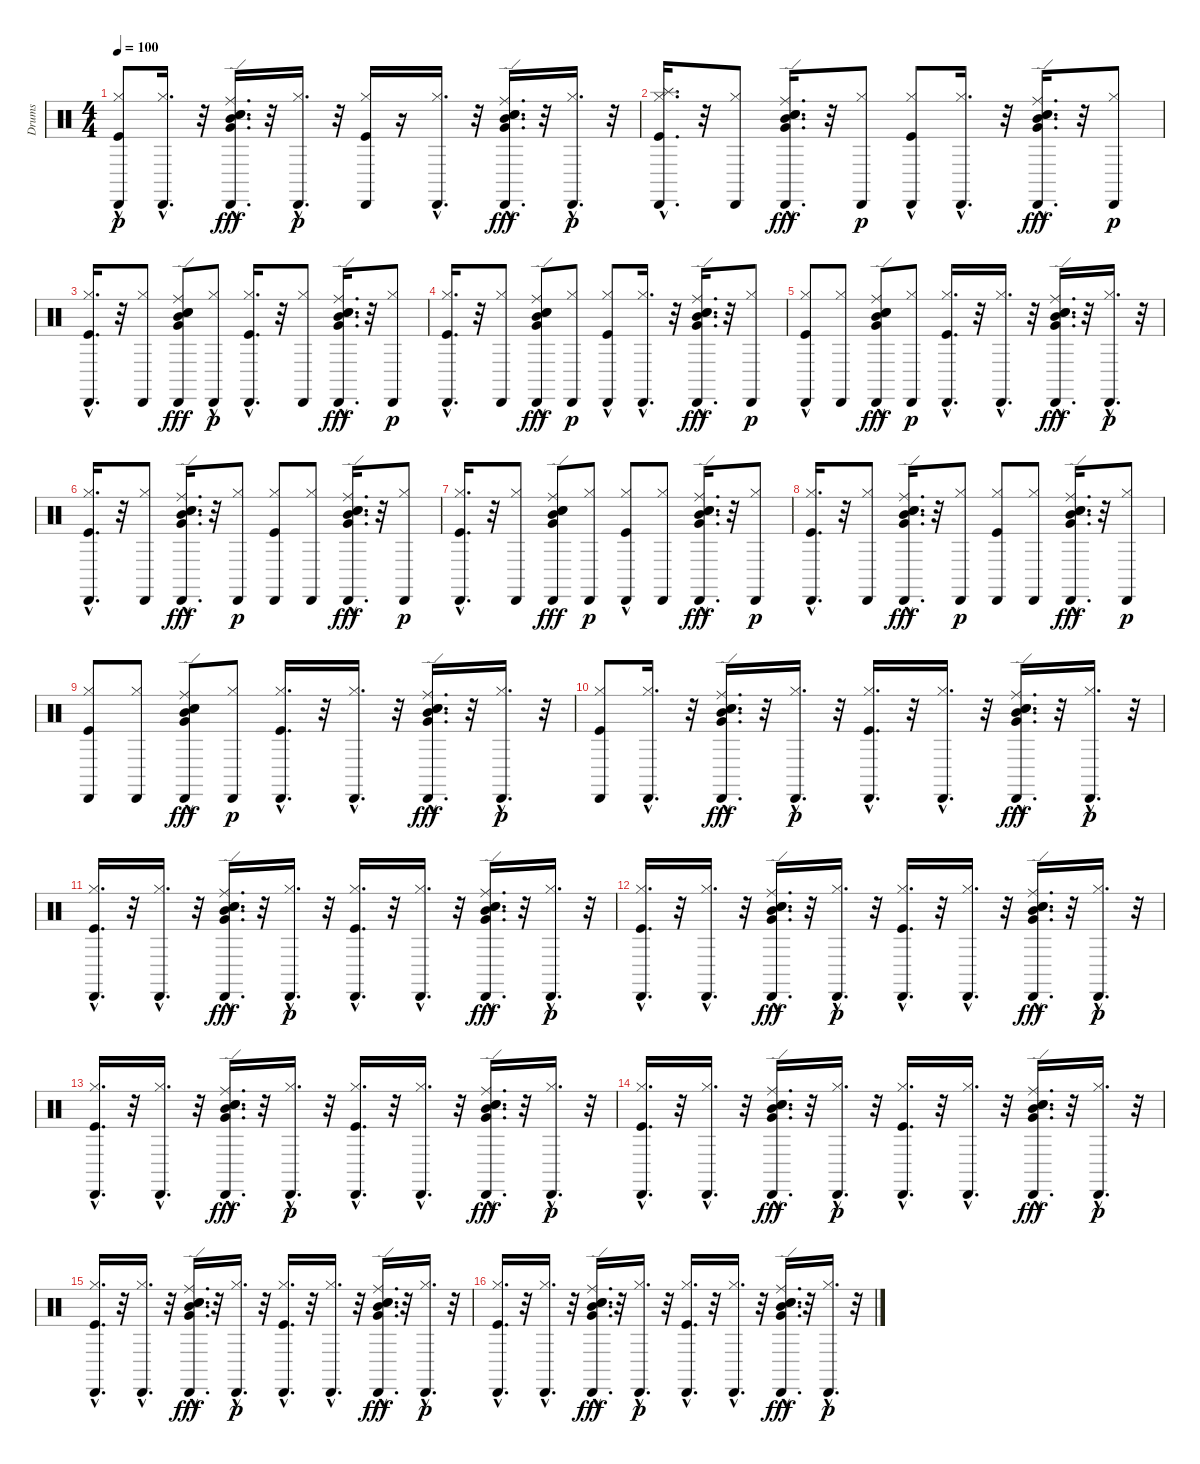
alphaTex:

\track ("Drums" "Drums") {instrument percussion}
\staff {score}
\articulation defaults
\ts (4 4)
\tempo 100
\clef neutral
\ks c
("Hi-Hat (closed)" "Kick (hit)"{hac} "Cabasa (hit)").8{dy p} ("Hi-Hat (closed)"{hac} "Cabasa (hit)"{hac}).16{d} r.32 ("Electric Snare (hit)"{hac} "Snare (hit) 2"{hac} "Ride (edge)"{hac} "Mid Tom (hit)"{hac} "Cabasa (hit)"{hac} "Very Low Tom (hit)"{hac}).16{d dy fff} r.32 ("Hi-Hat (closed)"{hac} "Cabasa (hit)"{hac}).16{d dy p} r.32 ("Hi-Hat (closed)" "Kick (hit)" "Cabasa (hit)").16 r.16 ("Hi-Hat (closed)"{hac} "Cabasa (hit)"{hac}).16{d} r.32 ("Electric Snare (hit)"{hac} "Snare (hit) 2"{hac} "Ride (edge)"{hac} "Mid Tom (hit)"{hac} "Cabasa (hit)"{hac} "Very Low Tom (hit)"{hac}).16{d dy fff} r.32 ("Hi-Hat (closed)"{hac} "Cabasa (hit)"{hac}).16{d dy p} r.32 |
("Splash (hit)" "Hi-Hat (closed)"{hac} "Kick (hit)"{hac} "Cabasa (hit)"{hac}).16{d} r.32 ("Hi-Hat (closed)" "Cabasa (hit)").8 ("Electric Snare (hit)"{hac} "Snare (hit) 2"{hac} "Ride (edge)"{hac} "Mid Tom (hit)"{hac} "Cabasa (hit)"{hac} "Very Low Tom (hit)"{hac}).16{d dy fff} r.32 ("Hi-Hat (closed)" "Cabasa (hit)").8{dy p} ("Hi-Hat (closed)"{hac} "Kick (hit)"{hac} "Cabasa (hit)").8 ("Hi-Hat (closed)"{hac} "Cabasa (hit)"{hac}).16{d} r.32 ("Electric Snare (hit)"{hac} "Snare (hit) 2"{hac} "Ride (edge)"{hac} "Mid Tom (hit)"{hac} "Cabasa (hit)"{hac} "Very Low Tom (hit)"{hac}).16{d dy fff} r.32 ("Hi-Hat (closed)" "Cabasa (hit)").8{dy p} |
("Hi-Hat (closed)"{hac} "Kick (hit)"{hac} "Cabasa (hit)"{hac}).16{d} r.32 ("Hi-Hat (closed)" "Cabasa (hit)").8 ("Electric Snare (hit)" "Snare (hit) 2" "Ride (edge)" "Mid Tom (hit)" "Cabasa (hit)" "Very Low Tom (hit)").8{dy fff} ("Hi-Hat (closed)" "Cabasa (hit)"{hac}).8{dy p} ("Hi-Hat (closed)"{hac} "Kick (hit)"{hac} "Cabasa (hit)"{hac}).16{d} r.32 ("Hi-Hat (closed)" "Cabasa (hit)").8 ("Electric Snare (hit)"{hac} "Snare (hit) 2"{hac} "Ride (edge)"{hac} "Mid Tom (hit)"{hac} "Cabasa (hit)"{hac} "Very Low Tom (hit)"{hac}).16{d dy fff} r.32 ("Hi-Hat (closed)" "Cabasa (hit)").8{dy p} |
("Hi-Hat (closed)"{hac} "Kick (hit)"{hac} "Cabasa (hit)"{hac}).16{d} r.32 ("Hi-Hat (closed)" "Cabasa (hit)").8 ("Electric Snare (hit)"{hac} "Snare (hit) 2"{hac} "Ride (edge)"{hac} "Mid Tom (hit)"{hac} "Cabasa (hit)" "Very Low Tom (hit)"{hac}).8{dy fff} ("Hi-Hat (closed)" "Cabasa (hit)").8{dy p} ("Hi-Hat (closed)"{hac} "Kick (hit)"{hac} "Cabasa (hit)").8 ("Hi-Hat (closed)"{hac} "Cabasa (hit)"{hac}).16{d} r.32 ("Electric Snare (hit)"{hac} "Snare (hit) 2"{hac} "Ride (edge)"{hac} "Mid Tom (hit)"{hac} "Cabasa (hit)"{hac} "Very Low Tom (hit)"{hac}).16{d dy fff} r.32 ("Hi-Hat (closed)" "Cabasa (hit)").8{dy p} |
("Hi-Hat (closed)" "Kick (hit)"{hac} "Cabasa (hit)").8 ("Hi-Hat (closed)" "Cabasa (hit)").8 ("Electric Snare (hit)" "Snare (hit) 2"{hac} "Ride (edge)"{hac} "Mid Tom (hit)"{hac} "Cabasa (hit)" "Very Low Tom (hit)"{hac}).8{dy fff} ("Hi-Hat (closed)" "Cabasa (hit)").8{dy p} ("Hi-Hat (closed)"{hac} "Kick (hit)"{hac} "Cabasa (hit)"{hac}).16{d} r.32 ("Hi-Hat (closed)"{hac} "Cabasa (hit)"{hac}).16{d} r.32 ("Electric Snare (hit)"{hac} "Snare (hit) 2"{hac} "Ride (edge)"{hac} "Mid Tom (hit)"{hac} "Cabasa (hit)"{hac} "Very Low Tom (hit)"{hac}).16{d dy fff} r.32 ("Hi-Hat (closed)"{hac} "Cabasa (hit)"{hac}).16{d dy p} r.32 |
("Hi-Hat (closed)"{hac} "Kick (hit)"{hac} "Cabasa (hit)"{hac}).16{d} r.32 ("Hi-Hat (closed)" "Cabasa (hit)").8 ("Electric Snare (hit)"{hac} "Snare (hit) 2"{hac} "Ride (edge)"{hac} "Mid Tom (hit)"{hac} "Cabasa (hit)"{hac} "Very Low Tom (hit)"{hac}).16{d dy fff} r.32 ("Hi-Hat (closed)" "Cabasa (hit)").8{dy p} ("Hi-Hat (closed)" "Kick (hit)" "Cabasa (hit)").8 ("Hi-Hat (closed)" "Cabasa (hit)").8 ("Electric Snare (hit)"{hac} "Snare (hit) 2"{hac} "Ride (edge)"{hac} "Mid Tom (hit)"{hac} "Cabasa (hit)"{hac} "Very Low Tom (hit)"{hac}).16{d dy fff} r.32 ("Hi-Hat (closed)" "Cabasa (hit)").8{dy p} |
("Hi-Hat (closed)"{hac} "Kick (hit)"{hac} "Cabasa (hit)"{hac}).16{d} r.32 ("Hi-Hat (closed)" "Cabasa (hit)").8 ("Electric Snare (hit)" "Snare (hit) 2" "Ride (edge)" "Mid Tom (hit)" "Cabasa (hit)" "Very Low Tom (hit)").8{dy fff} ("Hi-Hat (closed)" "Cabasa (hit)").8{dy p} ("Hi-Hat (closed)"{hac} "Kick (hit)" "Cabasa (hit)"{hac}).8 ("Hi-Hat (closed)" "Cabasa (hit)").8 ("Electric Snare (hit)"{hac} "Snare (hit) 2"{hac} "Ride (edge)"{hac} "Mid Tom (hit)"{hac} "Cabasa (hit)"{hac} "Very Low Tom (hit)"{hac}).16{d dy fff} r.32 ("Hi-Hat (closed)" "Cabasa (hit)").8{dy p} |
("Hi-Hat (closed)"{hac} "Kick (hit)"{hac} "Cabasa (hit)"{hac}).16{d} r.32 ("Hi-Hat (closed)" "Cabasa (hit)").8 ("Electric Snare (hit)"{hac} "Snare (hit) 2"{hac} "Ride (edge)"{hac} "Mid Tom (hit)"{hac} "Cabasa (hit)"{hac} "Very Low Tom (hit)"{hac}).16{d dy fff} r.32 ("Hi-Hat (closed)" "Cabasa (hit)").8{dy p} ("Hi-Hat (closed)" "Kick (hit)" "Cabasa (hit)").8 ("Hi-Hat (closed)" "Cabasa (hit)").8 ("Electric Snare (hit)"{hac} "Snare (hit) 2"{hac} "Ride (edge)"{hac} "Mid Tom (hit)"{hac} "Cabasa (hit)"{hac} "Very Low Tom (hit)"{hac}).16{d dy fff} r.32 ("Hi-Hat (closed)" "Cabasa (hit)").8{dy p} |
("Hi-Hat (closed)" "Kick (hit)" "Cabasa (hit)").8 ("Hi-Hat (closed)" "Cabasa (hit)").8 ("Electric Snare (hit)" "Snare (hit) 2" "Ride (edge)"{hac} "Mid Tom (hit)"{hac} "Cabasa (hit)" "Very Low Tom (hit)"{hac}).8{dy fff} ("Hi-Hat (closed)" "Cabasa (hit)").8{dy p} ("Hi-Hat (closed)"{hac} "Kick (hit)"{hac} "Cabasa (hit)"{hac}).16{d} r.32 ("Hi-Hat (closed)"{hac} "Cabasa (hit)"{hac}).16{d} r.32 ("Electric Snare (hit)"{hac} "Snare (hit) 2"{hac} "Ride (edge)"{hac} "Mid Tom (hit)"{hac} "Cabasa (hit)"{hac} "Very Low Tom (hit)"{hac}).16{d dy fff} r.32 ("Hi-Hat (closed)"{hac} "Cabasa (hit)"{hac}).16{d dy p} r.32 |
("Hi-Hat (closed)" "Kick (hit)" "Cabasa (hit)").8 ("Hi-Hat (closed)"{hac} "Cabasa (hit)"{hac}).16{d} r.32 ("Electric Snare (hit)"{hac} "Snare (hit) 2"{hac} "Ride (edge)"{hac} "Mid Tom (hit)"{hac} "Cabasa (hit)"{hac} "Very Low Tom (hit)"{hac}).16{d dy fff} r.32 ("Hi-Hat (closed)"{hac} "Cabasa (hit)"{hac}).16{d dy p} r.32 ("Hi-Hat (closed)"{hac} "Kick (hit)"{hac} "Cabasa (hit)"{hac}).16{d} r.32 ("Hi-Hat (closed)"{hac} "Cabasa (hit)"{hac}).16{d} r.32 ("Electric Snare (hit)"{hac} "Snare (hit) 2"{hac} "Ride (edge)"{hac} "Mid Tom (hit)"{hac} "Cabasa (hit)"{hac} "Very Low Tom (hit)"{hac}).16{d dy fff} r.32 ("Hi-Hat (closed)"{hac} "Cabasa (hit)"{hac}).16{d dy p} r.32 |
("Hi-Hat (closed)"{hac} "Kick (hit)"{hac} "Cabasa (hit)"{hac}).16{d} r.32 ("Hi-Hat (closed)"{hac} "Cabasa (hit)"{hac}).16{d} r.32 ("Electric Snare (hit)"{hac} "Snare (hit) 2"{hac} "Ride (edge)"{hac} "Mid Tom (hit)"{hac} "Cabasa (hit)"{hac} "Very Low Tom (hit)"{hac}).16{d dy fff} r.32 ("Hi-Hat (closed)"{hac} "Cabasa (hit)"{hac}).16{d dy p} r.32 ("Hi-Hat (closed)"{hac} "Kick (hit)"{hac} "Cabasa (hit)"{hac}).16{d} r.32 ("Hi-Hat (closed)"{hac} "Cabasa (hit)"{hac}).16{d} r.32 ("Electric Snare (hit)"{hac} "Snare (hit) 2"{hac} "Ride (edge)"{hac} "Mid Tom (hit)"{hac} "Cabasa (hit)"{hac} "Very Low Tom (hit)"{hac}).16{d dy fff} r.32 ("Hi-Hat (closed)"{hac} "Cabasa (hit)"{hac}).16{d dy p} r.32 |
("Hi-Hat (closed)"{hac} "Kick (hit)"{hac} "Cabasa (hit)"{hac}).16{d} r.32 ("Hi-Hat (closed)"{hac} "Cabasa (hit)"{hac}).16{d} r.32 ("Electric Snare (hit)"{hac} "Snare (hit) 2"{hac} "Ride (edge)"{hac} "Mid Tom (hit)"{hac} "Cabasa (hit)"{hac} "Very Low Tom (hit)"{hac}).16{d dy fff} r.32 ("Hi-Hat (closed)"{hac} "Cabasa (hit)"{hac}).16{d dy p} r.32 ("Hi-Hat (closed)"{hac} "Kick (hit)"{hac} "Cabasa (hit)"{hac}).16{d} r.32 ("Hi-Hat (closed)"{hac} "Cabasa (hit)"{hac}).16{d} r.32 ("Electric Snare (hit)"{hac} "Snare (hit) 2"{hac} "Ride (edge)"{hac} "Mid Tom (hit)"{hac} "Cabasa (hit)"{hac} "Very Low Tom (hit)"{hac}).16{d dy fff} r.32 ("Hi-Hat (closed)"{hac} "Cabasa (hit)"{hac}).16{d dy p} r.32 |
("Hi-Hat (closed)"{hac} "Kick (hit)"{hac} "Cabasa (hit)"{hac}).16{d} r.32 ("Hi-Hat (closed)"{hac} "Cabasa (hit)"{hac}).16{d} r.32 ("Electric Snare (hit)"{hac} "Snare (hit) 2"{hac} "Ride (edge)"{hac} "Mid Tom (hit)"{hac} "Cabasa (hit)"{hac} "Very Low Tom (hit)"{hac}).16{d dy fff} r.32 ("Hi-Hat (closed)"{hac} "Cabasa (hit)"{hac}).16{d dy p} r.32 ("Hi-Hat (closed)"{hac} "Kick (hit)"{hac} "Cabasa (hit)"{hac}).16{d} r.32 ("Hi-Hat (closed)"{hac} "Cabasa (hit)"{hac}).16{d} r.32 ("Electric Snare (hit)"{hac} "Snare (hit) 2"{hac} "Ride (edge)"{hac} "Mid Tom (hit)"{hac} "Cabasa (hit)"{hac} "Very Low Tom (hit)"{hac}).16{d dy fff} r.32 ("Hi-Hat (closed)"{hac} "Cabasa (hit)"{hac}).16{d dy p} r.32 |
("Hi-Hat (closed)"{hac} "Kick (hit)"{hac} "Cabasa (hit)"{hac}).16{d} r.32 ("Hi-Hat (closed)"{hac} "Cabasa (hit)"{hac}).16{d} r.32 ("Electric Snare (hit)"{hac} "Snare (hit) 2"{hac} "Ride (edge)"{hac} "Mid Tom (hit)"{hac} "Cabasa (hit)"{hac} "Very Low Tom (hit)"{hac}).16{d dy fff} r.32 ("Hi-Hat (closed)"{hac} "Cabasa (hit)"{hac}).16{d dy p} r.32 ("Hi-Hat (closed)"{hac} "Kick (hit)"{hac} "Cabasa (hit)"{hac}).16{d} r.32 ("Hi-Hat (closed)"{hac} "Cabasa (hit)"{hac}).16{d} r.32 ("Electric Snare (hit)"{hac} "Snare (hit) 2"{hac} "Ride (edge)"{hac} "Mid Tom (hit)"{hac} "Cabasa (hit)"{hac} "Very Low Tom (hit)"{hac}).16{d dy fff} r.32 ("Hi-Hat (closed)"{hac} "Cabasa (hit)"{hac}).16{d dy p} r.32 |
("Hi-Hat (closed)"{hac} "Kick (hit)"{hac} "Cabasa (hit)"{hac}).16{d} r.32 ("Hi-Hat (closed)"{hac} "Cabasa (hit)"{hac}).16{d} r.32 ("Electric Snare (hit)"{hac} "Snare (hit) 2"{hac} "Ride (edge)"{hac} "Mid Tom (hit)"{hac} "Cabasa (hit)"{hac} "Very Low Tom (hit)"{hac}).16{d dy fff} r.32 ("Hi-Hat (closed)"{hac} "Cabasa (hit)"{hac}).16{d dy p} r.32 ("Hi-Hat (closed)"{hac} "Kick (hit)"{hac} "Cabasa (hit)"{hac}).16{d} r.32 ("Hi-Hat (closed)"{hac} "Cabasa (hit)"{hac}).16{d} r.32 ("Electric Snare (hit)"{hac} "Snare (hit) 2"{hac} "Ride (edge)"{hac} "Mid Tom (hit)"{hac} "Cabasa (hit)"{hac} "Very Low Tom (hit)"{hac}).16{d dy fff} r.32 ("Hi-Hat (closed)"{hac} "Cabasa (hit)"{hac}).16{d dy p} r.32 |
("Hi-Hat (closed)"{hac} "Kick (hit)"{hac} "Cabasa (hit)"{hac}).16{d} r.32 ("Hi-Hat (closed)"{hac} "Cabasa (hit)"{hac}).16{d} r.32 ("Electric Snare (hit)"{hac} "Snare (hit) 2"{hac} "Ride (edge)"{hac} "Mid Tom (hit)"{hac} "Cabasa (hit)"{hac} "Very Low Tom (hit)"{hac}).16{d dy fff} r.32 ("Hi-Hat (closed)"{hac} "Cabasa (hit)"{hac}).16{d dy p} r.32 ("Hi-Hat (closed)"{hac} "Kick (hit)"{hac} "Cabasa (hit)"{hac}).16{d} r.32 ("Hi-Hat (closed)"{hac} "Cabasa (hit)"{hac}).16{d} r.32 ("Electric Snare (hit)"{hac} "Snare (hit) 2"{hac} "Ride (edge)"{hac} "Mid Tom (hit)"{hac} "Cabasa (hit)"{hac} "Very Low Tom (hit)"{hac}).16{d dy fff} r.32 ("Hi-Hat (closed)"{hac} "Cabasa (hit)"{hac}).16{d dy p} r.32
